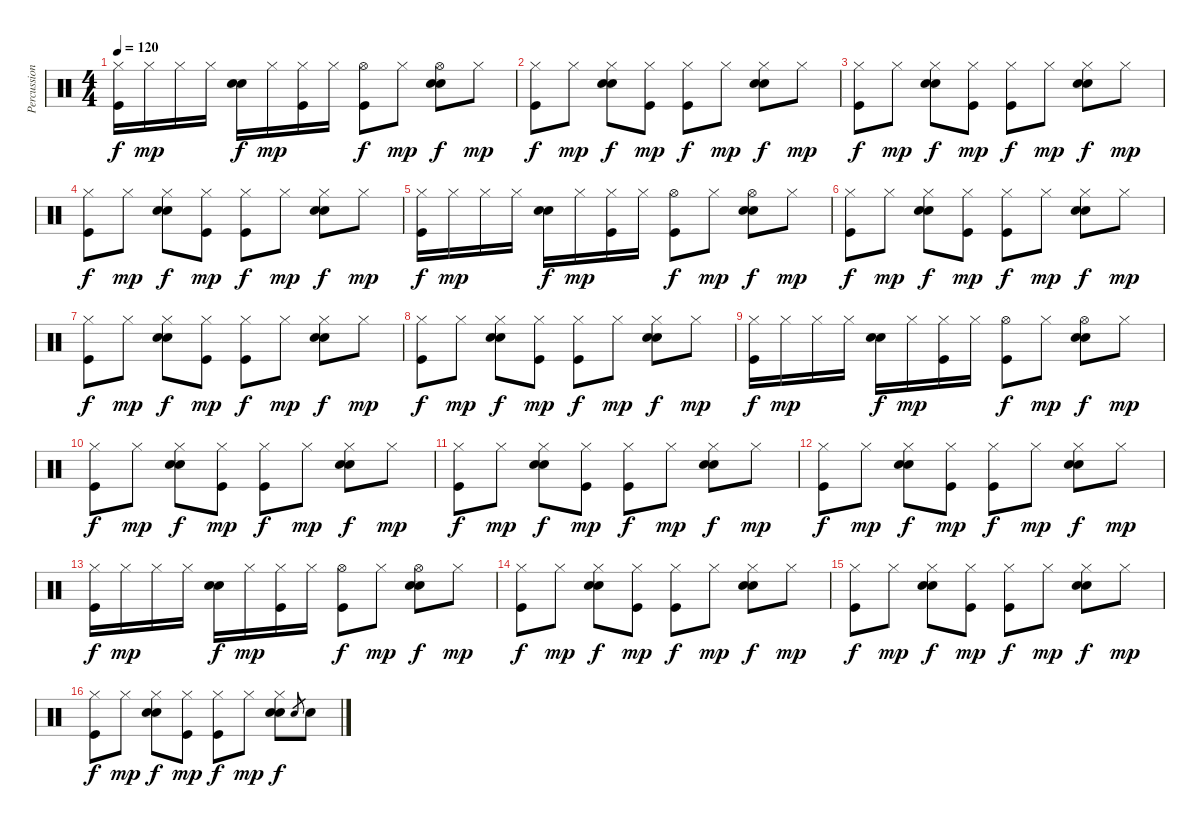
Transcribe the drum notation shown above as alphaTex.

\track ("Percussions" "Percussion") {instrument percussion}
\staff {score}
\articulation defaults
\ts (4 4)
\tempo 120
\clef neutral
\ks c
("Hi-Hat (closed)" "Kick (hit)").16{dy f} "Hi-Hat (closed)".16{dy mp} "Hi-Hat (closed)".16 "Hi-Hat (closed)".16 ("Hand Clap (hit)" "Snare (hit) 2").16{dy f} "Hi-Hat (closed)".16{dy mp} ("Hi-Hat (closed)" "Kick (hit)").16 "Hi-Hat (closed)".16 ("Hi-Hat (open)" "Kick (hit)").8{dy f} "Hi-Hat (closed)".8{dy mp} ("Hi-Hat (open)" "Hand Clap (hit)" "Snare (hit) 2").8{dy f} "Hi-Hat (closed)".8{dy mp} |
("Hi-Hat (closed)" "Kick (hit)").8{dy f} "Hi-Hat (closed)".8{dy mp} ("Hi-Hat (closed)" "Hand Clap (hit)" "Snare (hit) 2").8{dy f} ("Hi-Hat (closed)" "Kick (hit)").8{dy mp} ("Hi-Hat (closed)" "Kick (hit)").8{dy f} "Hi-Hat (closed)".8{dy mp} ("Hi-Hat (closed)" "Hand Clap (hit)" "Snare (hit) 2").8{dy f} "Hi-Hat (closed)".8{dy mp} |
("Hi-Hat (closed)" "Kick (hit)").8{dy f} "Hi-Hat (closed)".8{dy mp} ("Hi-Hat (closed)" "Hand Clap (hit)" "Snare (hit) 2").8{dy f} ("Hi-Hat (closed)" "Kick (hit)").8{dy mp} ("Hi-Hat (closed)" "Kick (hit)").8{dy f} "Hi-Hat (closed)".8{dy mp} ("Hi-Hat (closed)" "Hand Clap (hit)" "Snare (hit) 2").8{dy f} "Hi-Hat (closed)".8{dy mp} |
("Hi-Hat (closed)" "Kick (hit)").8{dy f} "Hi-Hat (closed)".8{dy mp} ("Hi-Hat (closed)" "Hand Clap (hit)" "Snare (hit) 2").8{dy f} ("Hi-Hat (closed)" "Kick (hit)").8{dy mp} ("Hi-Hat (closed)" "Kick (hit)").8{dy f} "Hi-Hat (closed)".8{dy mp} ("Hi-Hat (closed)" "Hand Clap (hit)" "Snare (hit) 2").8{dy f} "Hi-Hat (closed)".8{dy mp} |
("Hi-Hat (closed)" "Kick (hit)").16{dy f} "Hi-Hat (closed)".16{dy mp} "Hi-Hat (closed)".16 "Hi-Hat (closed)".16 ("Hand Clap (hit)" "Snare (hit) 2").16{dy f} "Hi-Hat (closed)".16{dy mp} ("Hi-Hat (closed)" "Kick (hit)").16 "Hi-Hat (closed)".16 ("Hi-Hat (open)" "Kick (hit)").8{dy f} "Hi-Hat (closed)".8{dy mp} ("Hi-Hat (open)" "Hand Clap (hit)" "Snare (hit) 2").8{dy f} "Hi-Hat (closed)".8{dy mp} |
("Hi-Hat (closed)" "Kick (hit)").8{dy f} "Hi-Hat (closed)".8{dy mp} ("Hi-Hat (closed)" "Hand Clap (hit)" "Snare (hit) 2").8{dy f} ("Hi-Hat (closed)" "Kick (hit)").8{dy mp} ("Hi-Hat (closed)" "Kick (hit)").8{dy f} "Hi-Hat (closed)".8{dy mp} ("Hi-Hat (closed)" "Hand Clap (hit)" "Snare (hit) 2").8{dy f} "Hi-Hat (closed)".8{dy mp} |
("Hi-Hat (closed)" "Kick (hit)").8{dy f} "Hi-Hat (closed)".8{dy mp} ("Hi-Hat (closed)" "Hand Clap (hit)" "Snare (hit) 2").8{dy f} ("Hi-Hat (closed)" "Kick (hit)").8{dy mp} ("Hi-Hat (closed)" "Kick (hit)").8{dy f} "Hi-Hat (closed)".8{dy mp} ("Hi-Hat (closed)" "Hand Clap (hit)" "Snare (hit) 2").8{dy f} "Hi-Hat (closed)".8{dy mp} |
("Hi-Hat (closed)" "Kick (hit)").8{dy f} "Hi-Hat (closed)".8{dy mp} ("Hi-Hat (closed)" "Hand Clap (hit)" "Snare (hit) 2").8{dy f} ("Hi-Hat (closed)" "Kick (hit)").8{dy mp} ("Hi-Hat (closed)" "Kick (hit)").8{dy f} "Hi-Hat (closed)".8{dy mp} ("Hi-Hat (closed)" "Hand Clap (hit)" "Snare (hit) 2").8{dy f} "Hi-Hat (closed)".8{dy mp} |
("Hi-Hat (closed)" "Kick (hit)").16{dy f} "Hi-Hat (closed)".16{dy mp} "Hi-Hat (closed)".16 "Hi-Hat (closed)".16 ("Hand Clap (hit)" "Snare (hit) 2").16{dy f} "Hi-Hat (closed)".16{dy mp} ("Hi-Hat (closed)" "Kick (hit)").16 "Hi-Hat (closed)".16 ("Hi-Hat (open)" "Kick (hit)").8{dy f} "Hi-Hat (closed)".8{dy mp} ("Hi-Hat (open)" "Hand Clap (hit)" "Snare (hit) 2").8{dy f} "Hi-Hat (closed)".8{dy mp} |
("Hi-Hat (closed)" "Kick (hit)").8{dy f} "Hi-Hat (closed)".8{dy mp} ("Hi-Hat (closed)" "Hand Clap (hit)" "Snare (hit) 2").8{dy f} ("Hi-Hat (closed)" "Kick (hit)").8{dy mp} ("Hi-Hat (closed)" "Kick (hit)").8{dy f} "Hi-Hat (closed)".8{dy mp} ("Hi-Hat (closed)" "Hand Clap (hit)" "Snare (hit) 2").8{dy f} "Hi-Hat (closed)".8{dy mp} |
("Hi-Hat (closed)" "Kick (hit)").8{dy f} "Hi-Hat (closed)".8{dy mp} ("Hi-Hat (closed)" "Hand Clap (hit)" "Snare (hit) 2").8{dy f} ("Hi-Hat (closed)" "Kick (hit)").8{dy mp} ("Hi-Hat (closed)" "Kick (hit)").8{dy f} "Hi-Hat (closed)".8{dy mp} ("Hi-Hat (closed)" "Hand Clap (hit)" "Snare (hit) 2").8{dy f} "Hi-Hat (closed)".8{dy mp} |
("Hi-Hat (closed)" "Kick (hit)").8{dy f} "Hi-Hat (closed)".8{dy mp} ("Hi-Hat (closed)" "Hand Clap (hit)" "Snare (hit) 2").8{dy f} ("Hi-Hat (closed)" "Kick (hit)").8{dy mp} ("Hi-Hat (closed)" "Kick (hit)").8{dy f} "Hi-Hat (closed)".8{dy mp} ("Hi-Hat (closed)" "Hand Clap (hit)" "Snare (hit) 2").8{dy f} "Hi-Hat (closed)".8{dy mp} |
("Hi-Hat (closed)" "Kick (hit)").16{dy f} "Hi-Hat (closed)".16{dy mp} "Hi-Hat (closed)".16 "Hi-Hat (closed)".16 ("Hand Clap (hit)" "Snare (hit) 2").16{dy f} "Hi-Hat (closed)".16{dy mp} ("Hi-Hat (closed)" "Kick (hit)").16 "Hi-Hat (closed)".16 ("Hi-Hat (open)" "Kick (hit)").8{dy f} "Hi-Hat (closed)".8{dy mp} ("Hi-Hat (open)" "Hand Clap (hit)" "Snare (hit) 2").8{dy f} "Hi-Hat (closed)".8{dy mp} |
("Hi-Hat (closed)" "Kick (hit)").8{dy f} "Hi-Hat (closed)".8{dy mp} ("Hi-Hat (closed)" "Hand Clap (hit)" "Snare (hit) 2").8{dy f} ("Hi-Hat (closed)" "Kick (hit)").8{dy mp} ("Hi-Hat (closed)" "Kick (hit)").8{dy f} "Hi-Hat (closed)".8{dy mp} ("Hi-Hat (closed)" "Hand Clap (hit)" "Snare (hit) 2").8{dy f} "Hi-Hat (closed)".8{dy mp} |
("Hi-Hat (closed)" "Kick (hit)").8{dy f} "Hi-Hat (closed)".8{dy mp} ("Hi-Hat (closed)" "Hand Clap (hit)" "Snare (hit) 2").8{dy f} ("Hi-Hat (closed)" "Kick (hit)").8{dy mp} ("Hi-Hat (closed)" "Kick (hit)").8{dy f} "Hi-Hat (closed)".8{dy mp} ("Hi-Hat (closed)" "Hand Clap (hit)" "Snare (hit) 2").8{dy f} "Hi-Hat (closed)".8{dy mp} |
("Hi-Hat (closed)" "Kick (hit)").8{dy f} "Hi-Hat (closed)".8{dy mp} ("Hi-Hat (closed)" "Hand Clap (hit)" "Snare (hit) 2").8{dy f} ("Hi-Hat (closed)" "Kick (hit)").8{dy mp} ("Hi-Hat (closed)" "Kick (hit)").8{dy f} "Hi-Hat (closed)".8{dy mp} ("Hi-Hat (closed)" "Hand Clap (hit)" "Snare (hit) 2").8{dy f} "Snare (hit) 2".8{gr} "Snare (hit) 2".8
